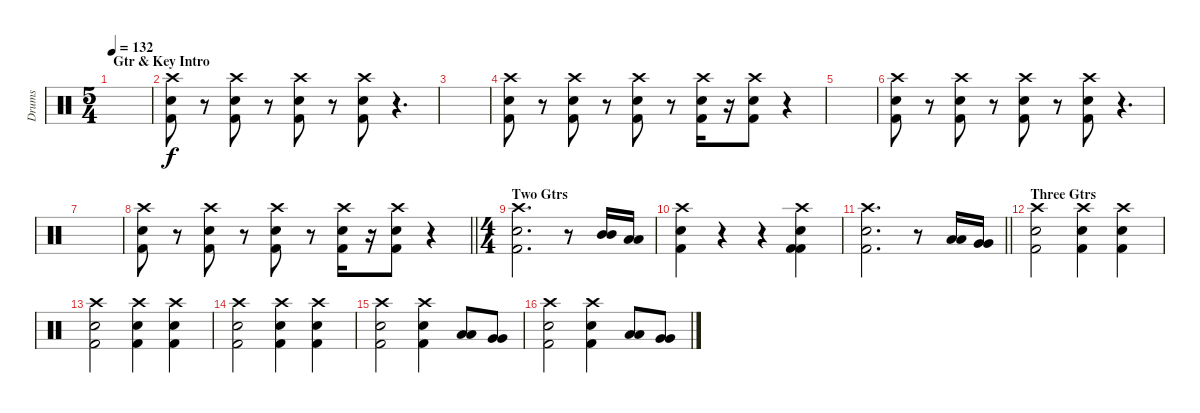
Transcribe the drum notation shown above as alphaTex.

\track ("Drums" "Drums") {instrument percussion}
\staff {score}
\articulation defaults
\ts (5 4)
\section ("" "Gtr & Key Intro")
\tempo 132
\clef neutral
\ks c
|
("Crash high (hit)" "Snare (hit) 2" "Kick (hit) 2").8 r.8 ("Crash high (hit)" "Snare (hit) 2" "Kick (hit) 2").8 r.8 ("Crash high (hit)" "Snare (hit) 2" "Kick (hit) 2").8 r.8 ("Crash high (hit)" "Snare (hit) 2" "Kick (hit) 2").8 r.4{d} |
|
("Crash high (hit)" "Snare (hit) 2" "Kick (hit) 2").8 r.8 ("Crash high (hit)" "Snare (hit) 2" "Kick (hit) 2").8 r.8 ("Crash high (hit)" "Snare (hit) 2" "Kick (hit) 2").8 r.8 ("Crash high (hit)" "Snare (hit) 2" "Kick (hit) 2").16 r.16 ("Crash high (hit)" "Snare (hit) 2" "Kick (hit) 2").8 r.4 |
|
("Crash high (hit)" "Snare (hit) 2" "Kick (hit) 2").8 r.8 ("Crash high (hit)" "Snare (hit) 2" "Kick (hit) 2").8 r.8 ("Crash high (hit)" "Snare (hit) 2" "Kick (hit) 2").8 r.8 ("Crash high (hit)" "Snare (hit) 2" "Kick (hit) 2").8 r.4{d} |
|
\barLineRight lightlight
("Crash high (hit)" "Snare (hit) 2" "Kick (hit) 2").8 r.8 ("Crash high (hit)" "Snare (hit) 2" "Kick (hit) 2").8 r.8 ("Crash high (hit)" "Snare (hit) 2" "Kick (hit) 2").8 r.8 ("Crash high (hit)" "Snare (hit) 2" "Kick (hit) 2").16 r.16 ("Crash high (hit)" "Snare (hit) 2" "Kick (hit) 2").8 r.4 |
\ts (4 4)
\section ("" "Two Gtrs")
("Crash high (hit)" "Snare (hit) 2" "Kick (hit) 2").2{d} r.8 ("Mid Tom (hit)" "Mid Tom (hit)").16 ("Low Tom (hit)" "Low Tom (hit)").16 |
("Crash high (hit)" "Snare (hit) 2" "Kick (hit) 2").4 r.4 r.4 ("Crash high (hit)" "Snare (hit) 2" "Kick (hit) 2" "Kick (hit) 2").4 |
\barLineRight lightlight
("Crash high (hit)" "Snare (hit) 2" "Kick (hit) 2").2{d} r.8 ("Low Tom (hit)" "Low Tom (hit)").16 ("Very Low Tom (hit)" "Very Low Tom (hit)").16 |
\section ("" "Three Gtrs")
("Crash high (hit)" "Snare (hit) 2" "Kick (hit) 2").2 ("Crash high (hit)" "Snare (hit) 2" "Kick (hit) 2").4 ("Crash high (hit)" "Snare (hit) 2" "Kick (hit) 2").4 |
("Crash high (hit)" "Snare (hit) 2" "Kick (hit) 2").2 ("Crash high (hit)" "Snare (hit) 2" "Kick (hit) 2").4 ("Crash high (hit)" "Snare (hit) 2" "Kick (hit) 2").4 |
("Crash high (hit)" "Snare (hit) 2" "Kick (hit) 2").2 ("Crash high (hit)" "Snare (hit) 2" "Kick (hit) 2").4 ("Crash high (hit)" "Snare (hit) 2" "Kick (hit) 2").4 |
("Crash high (hit)" "Snare (hit) 2" "Kick (hit) 2").2 ("Crash high (hit)" "Snare (hit) 2" "Kick (hit) 2").4 ("Low Tom (hit)" "Low Tom (hit)").8 ("Very Low Tom (hit)" "Very Low Tom (hit)").8 |
("Crash high (hit)" "Snare (hit) 2" "Kick (hit) 2").2 ("Crash high (hit)" "Snare (hit) 2" "Kick (hit) 2").4 ("Low Tom (hit)" "Low Tom (hit)").8 ("Very Low Tom (hit)" "Very Low Tom (hit)").8
